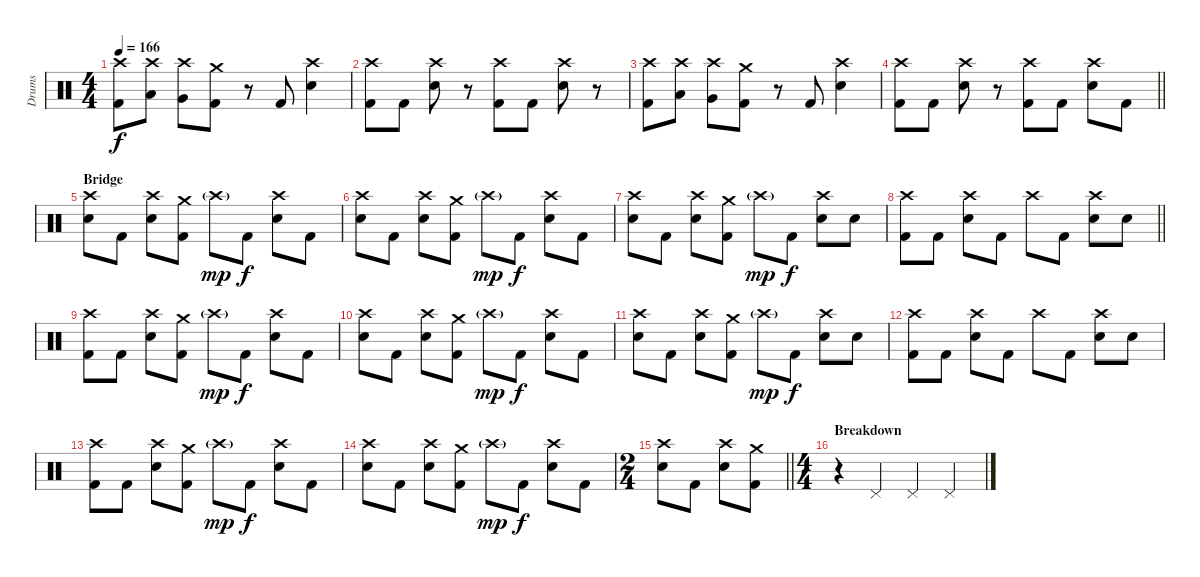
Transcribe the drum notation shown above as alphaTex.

\track ("Drums" "Drums") {instrument percussion}
\staff {score}
\articulation defaults
\ts (4 4)
\tempo 166
\clef neutral
\ks c
("Crash high (hit)" "Kick (hit) 2").8{dy f} ("Crash high (hit)" "Low Tom (hit)").8 ("Crash high (hit)" "Very Low Tom (hit)").8 ("Crash medium (hit)" "Kick (hit) 2").8 r.8 "Kick (hit) 2".8 ("Crash high (hit)" "Electric Snare (hit)").4 |
("Crash high (hit)" "Kick (hit) 2").8 "Kick (hit) 2".8 ("Crash high (hit)" "Electric Snare (hit)").8 r.8 ("Crash high (hit)" "Kick (hit) 2").8 "Kick (hit) 2".8 ("Crash high (hit)" "Electric Snare (hit)").8 r.8 |
("Crash high (hit)" "Kick (hit) 2").8 ("Crash high (hit)" "Low Tom (hit)").8 ("Crash high (hit)" "Very Low Tom (hit)").8 ("Crash medium (hit)" "Kick (hit) 2").8 r.8 "Kick (hit) 2".8 ("Crash high (hit)" "Electric Snare (hit)").4 |
\barLineRight lightlight
("Crash high (hit)" "Kick (hit) 2").8 "Kick (hit) 2".8 ("Crash high (hit)" "Electric Snare (hit)").8 r.8 ("Crash high (hit)" "Kick (hit) 2").8 "Kick (hit) 2".8 ("Crash high (hit)" "Electric Snare (hit)").8 "Kick (hit) 2".8 |
\section ("" "Bridge")
("Crash high (hit)" "Electric Snare (hit)").8 "Kick (hit) 2".8 ("Crash high (hit)" "Electric Snare (hit)").8 ("Crash medium (hit)" "Kick (hit) 2").8 "Crash high (hit)"{g}.8{dy mp} "Kick (hit) 2".8{dy f} ("Crash high (hit)" "Electric Snare (hit)").8 "Kick (hit) 2".8 |
("Crash high (hit)" "Electric Snare (hit)").8 "Kick (hit) 2".8 ("Crash high (hit)" "Electric Snare (hit)").8 ("Crash medium (hit)" "Kick (hit) 2").8 "Crash high (hit)"{g}.8{dy mp} "Kick (hit) 2".8{dy f} ("Crash high (hit)" "Electric Snare (hit)").8 "Kick (hit) 2".8 |
("Crash high (hit)" "Electric Snare (hit)").8 "Kick (hit) 2".8 ("Crash high (hit)" "Electric Snare (hit)").8 ("Crash medium (hit)" "Kick (hit) 2").8 "Crash high (hit)"{g}.8{dy mp} "Kick (hit) 2".8{dy f} ("Crash high (hit)" "Electric Snare (hit)").8 "Electric Snare (hit)".8 |
\barLineRight lightlight
("Crash high (hit)" "Kick (hit) 2").8 "Kick (hit) 2".8 ("Crash high (hit)" "Electric Snare (hit)").8 "Kick (hit) 2".8 "Crash high (hit)".8 "Kick (hit) 2".8 ("Crash high (hit)" "Electric Snare (hit)").8 "Electric Snare (hit)".8 |
("Crash high (hit)" "Kick (hit) 2").8 "Kick (hit) 2".8 ("Crash high (hit)" "Electric Snare (hit)").8 ("Crash medium (hit)" "Kick (hit) 2").8 "Crash high (hit)"{g}.8{dy mp} "Kick (hit) 2".8{dy f} ("Crash high (hit)" "Electric Snare (hit)").8 "Kick (hit) 2".8 |
("Crash high (hit)" "Electric Snare (hit)").8 "Kick (hit) 2".8 ("Crash high (hit)" "Electric Snare (hit)").8 ("Crash medium (hit)" "Kick (hit) 2").8 "Crash high (hit)"{g}.8{dy mp} "Kick (hit) 2".8{dy f} ("Crash high (hit)" "Electric Snare (hit)").8 "Kick (hit) 2".8 |
("Crash high (hit)" "Electric Snare (hit)").8 "Kick (hit) 2".8 ("Crash high (hit)" "Electric Snare (hit)").8 ("Crash medium (hit)" "Kick (hit) 2").8 "Crash high (hit)"{g}.8{dy mp} "Kick (hit) 2".8{dy f} ("Crash high (hit)" "Electric Snare (hit)").8 "Electric Snare (hit)".8 |
("Crash high (hit)" "Kick (hit) 2").8 "Kick (hit) 2".8 ("Crash high (hit)" "Electric Snare (hit)").8 "Kick (hit) 2".8 "Crash high (hit)".8 "Kick (hit) 2".8 ("Crash high (hit)" "Electric Snare (hit)").8 "Electric Snare (hit)".8 |
("Crash high (hit)" "Kick (hit) 2").8 "Kick (hit) 2".8 ("Crash high (hit)" "Electric Snare (hit)").8 ("Crash medium (hit)" "Kick (hit) 2").8 "Crash high (hit)"{g}.8{dy mp} "Kick (hit) 2".8{dy f} ("Crash high (hit)" "Electric Snare (hit)").8 "Kick (hit) 2".8 |
("Crash high (hit)" "Electric Snare (hit)").8 "Kick (hit) 2".8 ("Crash high (hit)" "Electric Snare (hit)").8 ("Crash medium (hit)" "Kick (hit) 2").8 "Crash high (hit)"{g}.8{dy mp} "Kick (hit) 2".8{dy f} ("Crash high (hit)" "Electric Snare (hit)").8 "Kick (hit) 2".8 |
\ts (2 4)
\barLineRight lightlight
("Crash high (hit)" "Electric Snare (hit)").8 "Kick (hit) 2".8 ("Crash high (hit)" "Electric Snare (hit)").8 ("Crash medium (hit)" "Kick (hit) 2").8 |
\ts (4 4)
\section ("" "Breakdown")
r.4 "Pedal Hi-Hat (hit)".4 "Pedal Hi-Hat (hit)".4 "Pedal Hi-Hat (hit)".4
